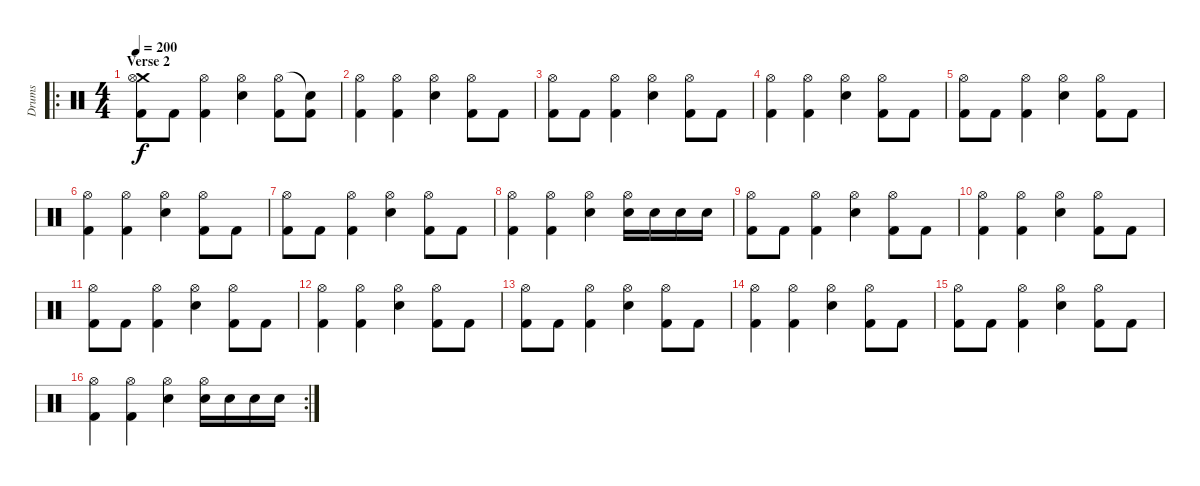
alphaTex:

\track ("Drums" "Drums") {instrument percussion}
\staff {score}
\articulation defaults
\ro
\ts (4 4)
\section ("" "Verse 2")
\tempo 200
\clef neutral
\ks c
("Crash medium (hit)" "Hi-Hat (open)" "Kick (hit) 2").8{dy f} "Kick (hit) 2".8 ("Hi-Hat (open)" "Kick (hit) 2").4 ("Hi-Hat (open)" "Snare (hit) 2").4 ("Hi-Hat (open)" "Kick (hit) 2").8 ("Snare (hit)"{t} "Kick (hit) 2").8 |
("Hi-Hat (open)" "Kick (hit) 2").4 ("Hi-Hat (open)" "Kick (hit) 2").4 ("Hi-Hat (open)" "Snare (hit) 2").4 ("Hi-Hat (open)" "Kick (hit) 2").8 "Kick (hit) 2".8 |
("Hi-Hat (open)" "Kick (hit) 2").8 "Kick (hit) 2".8 ("Hi-Hat (open)" "Kick (hit) 2").4 ("Hi-Hat (open)" "Snare (hit) 2").4 ("Hi-Hat (open)" "Kick (hit) 2").8 "Kick (hit) 2".8 |
("Hi-Hat (open)" "Kick (hit) 2").4 ("Hi-Hat (open)" "Kick (hit) 2").4 ("Hi-Hat (open)" "Snare (hit) 2").4 ("Hi-Hat (open)" "Kick (hit) 2").8 "Kick (hit) 2".8 |
("Hi-Hat (open)" "Kick (hit) 2").8 "Kick (hit) 2".8 ("Hi-Hat (open)" "Kick (hit) 2").4 ("Hi-Hat (open)" "Snare (hit) 2").4 ("Hi-Hat (open)" "Kick (hit) 2").8 "Kick (hit) 2".8 |
("Hi-Hat (open)" "Kick (hit) 2").4 ("Hi-Hat (open)" "Kick (hit) 2").4 ("Hi-Hat (open)" "Snare (hit) 2").4 ("Hi-Hat (open)" "Kick (hit) 2").8 "Kick (hit) 2".8 |
("Hi-Hat (open)" "Kick (hit) 2").8 "Kick (hit) 2".8 ("Hi-Hat (open)" "Kick (hit) 2").4 ("Hi-Hat (open)" "Snare (hit) 2").4 ("Hi-Hat (open)" "Kick (hit) 2").8 "Kick (hit) 2".8 |
("Hi-Hat (open)" "Kick (hit) 2").4 ("Hi-Hat (open)" "Kick (hit) 2").4 ("Hi-Hat (open)" "Snare (hit) 2").4 ("Hi-Hat (open)" "Snare (hit) 2").16 "Snare (hit) 2".16 "Snare (hit) 2".16 "Snare (hit) 2".16 |
("Hi-Hat (open)" "Kick (hit) 2").8 "Kick (hit) 2".8 ("Hi-Hat (open)" "Kick (hit) 2").4 ("Hi-Hat (open)" "Snare (hit) 2").4 ("Hi-Hat (open)" "Kick (hit) 2").8 "Kick (hit) 2".8 |
("Hi-Hat (open)" "Kick (hit) 2").4 ("Hi-Hat (open)" "Kick (hit) 2").4 ("Hi-Hat (open)" "Snare (hit) 2").4 ("Hi-Hat (open)" "Kick (hit) 2").8 "Kick (hit) 2".8 |
("Hi-Hat (open)" "Kick (hit) 2").8 "Kick (hit) 2".8 ("Hi-Hat (open)" "Kick (hit) 2").4 ("Hi-Hat (open)" "Snare (hit) 2").4 ("Hi-Hat (open)" "Kick (hit) 2").8 "Kick (hit) 2".8 |
("Hi-Hat (open)" "Kick (hit) 2").4 ("Hi-Hat (open)" "Kick (hit) 2").4 ("Hi-Hat (open)" "Snare (hit) 2").4 ("Hi-Hat (open)" "Kick (hit) 2").8 "Kick (hit) 2".8 |
("Hi-Hat (open)" "Kick (hit) 2").8 "Kick (hit) 2".8 ("Hi-Hat (open)" "Kick (hit) 2").4 ("Hi-Hat (open)" "Snare (hit) 2").4 ("Hi-Hat (open)" "Kick (hit) 2").8 "Kick (hit) 2".8 |
("Hi-Hat (open)" "Kick (hit) 2").4 ("Hi-Hat (open)" "Kick (hit) 2").4 ("Hi-Hat (open)" "Snare (hit) 2").4 ("Hi-Hat (open)" "Kick (hit) 2").8 "Kick (hit) 2".8 |
("Hi-Hat (open)" "Kick (hit) 2").8 "Kick (hit) 2".8 ("Hi-Hat (open)" "Kick (hit) 2").4 ("Hi-Hat (open)" "Snare (hit) 2").4 ("Hi-Hat (open)" "Kick (hit) 2").8 "Kick (hit) 2".8 |
\rc 2
("Hi-Hat (open)" "Kick (hit) 2").4 ("Hi-Hat (open)" "Kick (hit) 2").4 ("Hi-Hat (open)" "Snare (hit) 2").4 ("Hi-Hat (open)" "Snare (hit) 2").16 "Snare (hit) 2".16 "Snare (hit) 2".16 "Snare (hit) 2".16
